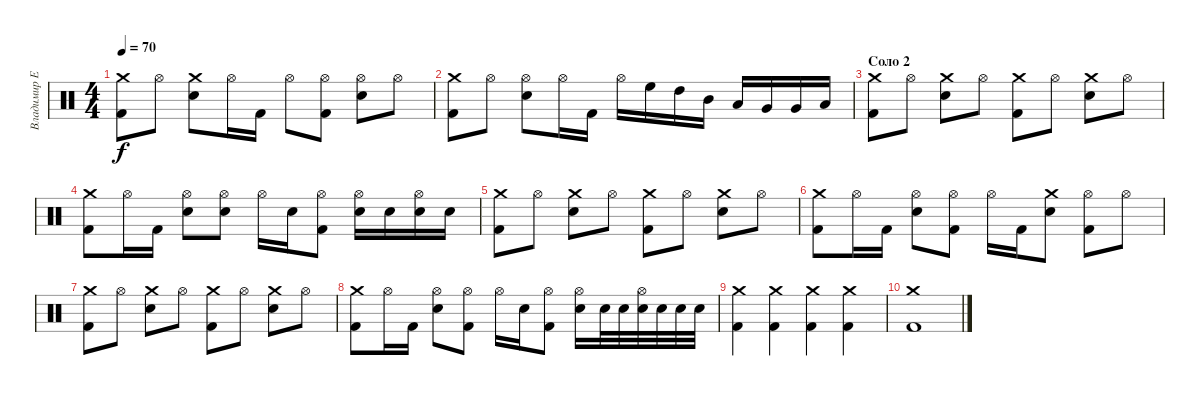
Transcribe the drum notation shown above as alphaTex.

\track ("Владимир Ермаков" "Владимир Е") {instrument percussion}
\staff {score}
\articulation defaults
\ts (4 4)
\tempo 70
\clef neutral
\ks c
("Crash medium (hit)" "Kick (hit) 2").8{dy f} "Hi-Hat (open)".8 ("Crash medium (hit)" "Electric Snare (hit)").8 "Hi-Hat (open)".16 "Kick (hit) 2".16 "Hi-Hat (open)".8 ("Hi-Hat (open)" "Kick (hit) 2").8 ("Hi-Hat (open)" "Electric Snare (hit)").8 "Hi-Hat (open)".8 |
("Crash medium (hit)" "Kick (hit) 2").8 "Hi-Hat (open)".8 ("Hi-Hat (open)" "Electric Snare (hit)").8 "Hi-Hat (open)".16 "Kick (hit) 2".16 "Hi-Hat (open)".16 "High Floor Tom (hit)".16 "High Tom (hit)".16 "Mid Tom (hit)".16 "Low Tom (hit)".16 "Very Low Tom (hit)".16 "Very Low Tom (hit)".16 "Low Floor Tom (hit)".16 |
\section ("" "Соло 2")
("Crash medium (hit)" "Kick (hit) 2").8 "Hi-Hat (open)".8 ("Crash medium (hit)" "Electric Snare (hit)").8 "Hi-Hat (open)".8 ("Crash medium (hit)" "Kick (hit) 2").8 "Hi-Hat (open)".8 ("Crash medium (hit)" "Electric Snare (hit)").8 "Hi-Hat (open)".8 |
("Crash medium (hit)" "Kick (hit) 2").8 "Hi-Hat (open)".16 "Kick (hit) 2".16 ("Hi-Hat (open)" "Electric Snare (hit)").8 ("Hi-Hat (open)" "Electric Snare (hit)").8 "Hi-Hat (open)".16 "Electric Snare (hit)".16 ("Hi-Hat (open)" "Kick (hit) 2").8 ("Hi-Hat (open)" "Electric Snare (hit)").16 "Electric Snare (hit)".16 ("Hi-Hat (open)" "Electric Snare (hit)").16 "Electric Snare (hit)".16 |
("Crash medium (hit)" "Kick (hit) 2").8 "Hi-Hat (open)".8 ("Crash medium (hit)" "Electric Snare (hit)").8 "Hi-Hat (open)".8 ("Crash medium (hit)" "Kick (hit) 2").8 "Hi-Hat (open)".8 ("Crash medium (hit)" "Electric Snare (hit)").8 "Hi-Hat (open)".8 |
("Crash medium (hit)" "Kick (hit) 2").8 "Hi-Hat (open)".16 "Kick (hit) 2".16 ("Hi-Hat (open)" "Electric Snare (hit)").8 ("Hi-Hat (open)" "Kick (hit) 2").8 "Hi-Hat (open)".16 "Kick (hit) 2".16 ("Crash medium (hit)" "Electric Snare (hit)").8 ("Hi-Hat (open)" "Kick (hit) 2").8 "Hi-Hat (open)".8 |
("Crash medium (hit)" "Kick (hit) 2").8 "Hi-Hat (open)".8 ("Crash medium (hit)" "Electric Snare (hit)").8 "Hi-Hat (open)".8 ("Crash medium (hit)" "Kick (hit) 2").8 "Hi-Hat (open)".8 ("Crash medium (hit)" "Electric Snare (hit)").8 "Hi-Hat (open)".8 |
("Crash medium (hit)" "Kick (hit) 2").8 "Hi-Hat (open)".16 "Kick (hit) 2".16 ("Hi-Hat (open)" "Electric Snare (hit)").8 ("Hi-Hat (open)" "Kick (hit) 2").8 "Hi-Hat (open)".16 "Electric Snare (hit)".16 ("Hi-Hat (open)" "Kick (hit) 2").8 ("Hi-Hat (open)" "Electric Snare (hit)").16 "Electric Snare (hit)".32 "Electric Snare (hit)".32 ("Hi-Hat (open)" "Electric Snare (hit)").32 "Electric Snare (hit)".32 "Electric Snare (hit)".32 "Electric Snare (hit)".32 |
("Crash medium (hit)" "Kick (hit) 2").4 ("Crash medium (hit)" "Kick (hit) 2").4 ("Crash medium (hit)" "Kick (hit) 2").4 ("Crash medium (hit)" "Kick (hit) 2").4 |
("Crash medium (hit)" "Kick (hit) 2").1
